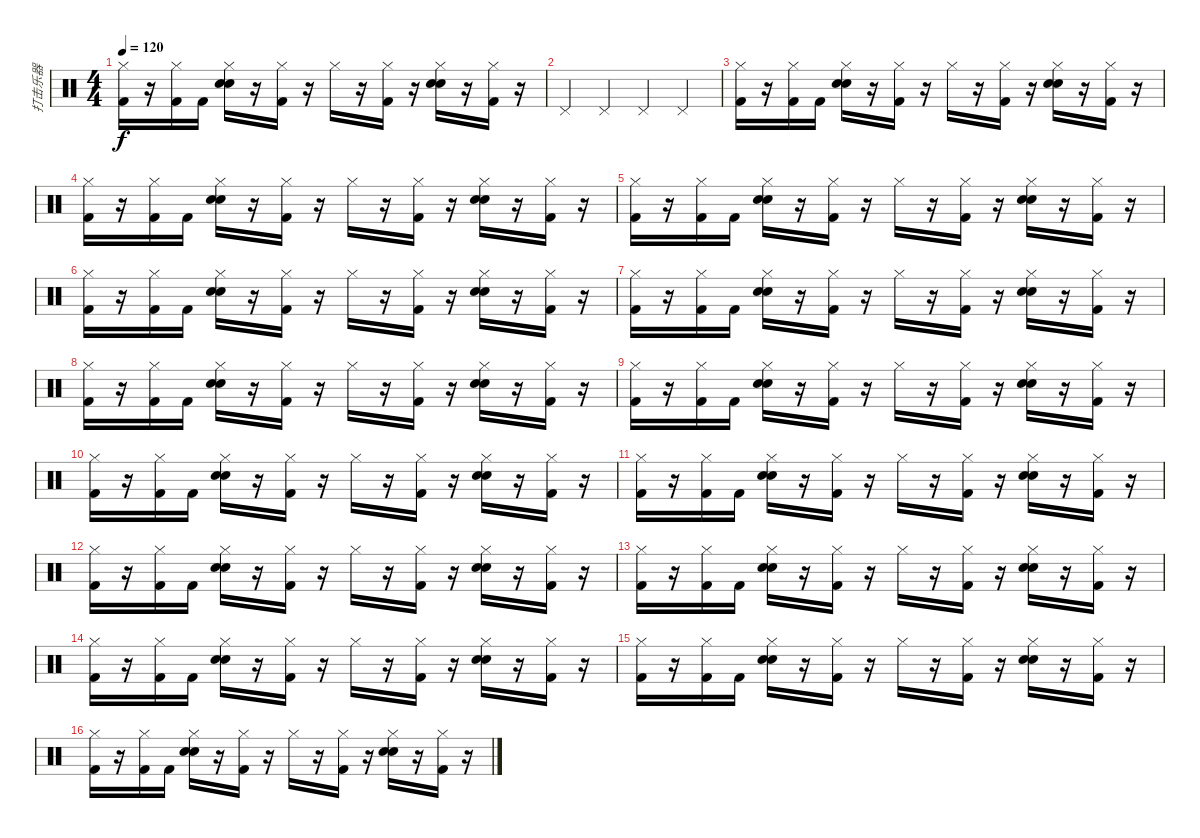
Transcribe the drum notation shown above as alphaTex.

\track ("打击乐器" "打击乐器") {instrument percussion}
\staff {score}
\articulation defaults
\ts (4 4)
\tempo 120
\clef neutral
\ks c
("Hi-Hat (closed)" "Kick (hit) 2").16{dy f} r.16 ("Hi-Hat (closed)" "Kick (hit) 2").16 "Kick (hit) 2".16 ("Hi-Hat (closed)" "Electric Snare (hit)" "Snare (hit) 2").16 r.16 ("Hi-Hat (closed)" "Kick (hit) 2").16 r.16 "Hi-Hat (closed)".16 r.16 ("Hi-Hat (closed)" "Kick (hit) 2").16 r.16 ("Hi-Hat (closed)" "Electric Snare (hit)" "Snare (hit) 2").16 r.16 ("Hi-Hat (closed)" "Kick (hit) 2").16 r.16 |
"Pedal Hi-Hat (hit)".4 "Pedal Hi-Hat (hit)".4 "Pedal Hi-Hat (hit)".4 "Pedal Hi-Hat (hit)".4 |
("Hi-Hat (closed)" "Kick (hit) 2").16 r.16 ("Hi-Hat (closed)" "Kick (hit) 2").16 "Kick (hit) 2".16 ("Hi-Hat (closed)" "Electric Snare (hit)" "Snare (hit) 2").16 r.16 ("Hi-Hat (closed)" "Kick (hit) 2").16 r.16 "Hi-Hat (closed)".16 r.16 ("Hi-Hat (closed)" "Kick (hit) 2").16 r.16 ("Hi-Hat (closed)" "Electric Snare (hit)" "Snare (hit) 2").16 r.16 ("Hi-Hat (closed)" "Kick (hit) 2").16 r.16 |
("Hi-Hat (closed)" "Kick (hit) 2").16 r.16 ("Hi-Hat (closed)" "Kick (hit) 2").16 "Kick (hit) 2".16 ("Hi-Hat (closed)" "Electric Snare (hit)" "Snare (hit) 2").16 r.16 ("Hi-Hat (closed)" "Kick (hit) 2").16 r.16 "Hi-Hat (closed)".16 r.16 ("Hi-Hat (closed)" "Kick (hit) 2").16 r.16 ("Hi-Hat (closed)" "Electric Snare (hit)" "Snare (hit) 2").16 r.16 ("Hi-Hat (closed)" "Kick (hit) 2").16 r.16 |
("Hi-Hat (closed)" "Kick (hit) 2").16 r.16 ("Hi-Hat (closed)" "Kick (hit) 2").16 "Kick (hit) 2".16 ("Hi-Hat (closed)" "Electric Snare (hit)" "Snare (hit) 2").16 r.16 ("Hi-Hat (closed)" "Kick (hit) 2").16 r.16 "Hi-Hat (closed)".16 r.16 ("Hi-Hat (closed)" "Kick (hit) 2").16 r.16 ("Hi-Hat (closed)" "Electric Snare (hit)" "Snare (hit) 2").16 r.16 ("Hi-Hat (closed)" "Kick (hit) 2").16 r.16 |
("Hi-Hat (closed)" "Kick (hit) 2").16 r.16 ("Hi-Hat (closed)" "Kick (hit) 2").16 "Kick (hit) 2".16 ("Hi-Hat (closed)" "Electric Snare (hit)" "Snare (hit) 2").16 r.16 ("Hi-Hat (closed)" "Kick (hit) 2").16 r.16 "Hi-Hat (closed)".16 r.16 ("Hi-Hat (closed)" "Kick (hit) 2").16 r.16 ("Hi-Hat (closed)" "Electric Snare (hit)" "Snare (hit) 2").16 r.16 ("Hi-Hat (closed)" "Kick (hit) 2").16 r.16 |
("Hi-Hat (closed)" "Kick (hit) 2").16 r.16 ("Hi-Hat (closed)" "Kick (hit) 2").16 "Kick (hit) 2".16 ("Hi-Hat (closed)" "Electric Snare (hit)" "Snare (hit) 2").16 r.16 ("Hi-Hat (closed)" "Kick (hit) 2").16 r.16 "Hi-Hat (closed)".16 r.16 ("Hi-Hat (closed)" "Kick (hit) 2").16 r.16 ("Hi-Hat (closed)" "Electric Snare (hit)" "Snare (hit) 2").16 r.16 ("Hi-Hat (closed)" "Kick (hit) 2").16 r.16 |
("Hi-Hat (closed)" "Kick (hit) 2").16 r.16 ("Hi-Hat (closed)" "Kick (hit) 2").16 "Kick (hit) 2".16 ("Hi-Hat (closed)" "Electric Snare (hit)" "Snare (hit) 2").16 r.16 ("Hi-Hat (closed)" "Kick (hit) 2").16 r.16 "Hi-Hat (closed)".16 r.16 ("Hi-Hat (closed)" "Kick (hit) 2").16 r.16 ("Hi-Hat (closed)" "Electric Snare (hit)" "Snare (hit) 2").16 r.16 ("Hi-Hat (closed)" "Kick (hit) 2").16 r.16 |
("Hi-Hat (closed)" "Kick (hit) 2").16 r.16 ("Hi-Hat (closed)" "Kick (hit) 2").16 "Kick (hit) 2".16 ("Hi-Hat (closed)" "Electric Snare (hit)" "Snare (hit) 2").16 r.16 ("Hi-Hat (closed)" "Kick (hit) 2").16 r.16 "Hi-Hat (closed)".16 r.16 ("Hi-Hat (closed)" "Kick (hit) 2").16 r.16 ("Hi-Hat (closed)" "Electric Snare (hit)" "Snare (hit) 2").16 r.16 ("Hi-Hat (closed)" "Kick (hit) 2").16 r.16 |
("Hi-Hat (closed)" "Kick (hit) 2").16 r.16 ("Hi-Hat (closed)" "Kick (hit) 2").16 "Kick (hit) 2".16 ("Hi-Hat (closed)" "Electric Snare (hit)" "Snare (hit) 2").16 r.16 ("Hi-Hat (closed)" "Kick (hit) 2").16 r.16 "Hi-Hat (closed)".16 r.16 ("Hi-Hat (closed)" "Kick (hit) 2").16 r.16 ("Hi-Hat (closed)" "Electric Snare (hit)" "Snare (hit) 2").16 r.16 ("Hi-Hat (closed)" "Kick (hit) 2").16 r.16 |
("Hi-Hat (closed)" "Kick (hit) 2").16 r.16 ("Hi-Hat (closed)" "Kick (hit) 2").16 "Kick (hit) 2".16 ("Hi-Hat (closed)" "Electric Snare (hit)" "Snare (hit) 2").16 r.16 ("Hi-Hat (closed)" "Kick (hit) 2").16 r.16 "Hi-Hat (closed)".16 r.16 ("Hi-Hat (closed)" "Kick (hit) 2").16 r.16 ("Hi-Hat (closed)" "Electric Snare (hit)" "Snare (hit) 2").16 r.16 ("Hi-Hat (closed)" "Kick (hit) 2").16 r.16 |
("Hi-Hat (closed)" "Kick (hit) 2").16 r.16 ("Hi-Hat (closed)" "Kick (hit) 2").16 "Kick (hit) 2".16 ("Hi-Hat (closed)" "Electric Snare (hit)" "Snare (hit) 2").16 r.16 ("Hi-Hat (closed)" "Kick (hit) 2").16 r.16 "Hi-Hat (closed)".16 r.16 ("Hi-Hat (closed)" "Kick (hit) 2").16 r.16 ("Hi-Hat (closed)" "Electric Snare (hit)" "Snare (hit) 2").16 r.16 ("Hi-Hat (closed)" "Kick (hit) 2").16 r.16 |
("Hi-Hat (closed)" "Kick (hit) 2").16 r.16 ("Hi-Hat (closed)" "Kick (hit) 2").16 "Kick (hit) 2".16 ("Hi-Hat (closed)" "Electric Snare (hit)" "Snare (hit) 2").16 r.16 ("Hi-Hat (closed)" "Kick (hit) 2").16 r.16 "Hi-Hat (closed)".16 r.16 ("Hi-Hat (closed)" "Kick (hit) 2").16 r.16 ("Hi-Hat (closed)" "Electric Snare (hit)" "Snare (hit) 2").16 r.16 ("Hi-Hat (closed)" "Kick (hit) 2").16 r.16 |
("Hi-Hat (closed)" "Kick (hit) 2").16 r.16 ("Hi-Hat (closed)" "Kick (hit) 2").16 "Kick (hit) 2".16 ("Hi-Hat (closed)" "Electric Snare (hit)" "Snare (hit) 2").16 r.16 ("Hi-Hat (closed)" "Kick (hit) 2").16 r.16 "Hi-Hat (closed)".16 r.16 ("Hi-Hat (closed)" "Kick (hit) 2").16 r.16 ("Hi-Hat (closed)" "Electric Snare (hit)" "Snare (hit) 2").16 r.16 ("Hi-Hat (closed)" "Kick (hit) 2").16 r.16 |
("Hi-Hat (closed)" "Kick (hit) 2").16 r.16 ("Hi-Hat (closed)" "Kick (hit) 2").16 "Kick (hit) 2".16 ("Hi-Hat (closed)" "Electric Snare (hit)" "Snare (hit) 2").16 r.16 ("Hi-Hat (closed)" "Kick (hit) 2").16 r.16 "Hi-Hat (closed)".16 r.16 ("Hi-Hat (closed)" "Kick (hit) 2").16 r.16 ("Hi-Hat (closed)" "Electric Snare (hit)" "Snare (hit) 2").16 r.16 ("Hi-Hat (closed)" "Kick (hit) 2").16 r.16 |
("Hi-Hat (closed)" "Kick (hit) 2").16 r.16 ("Hi-Hat (closed)" "Kick (hit) 2").16 "Kick (hit) 2".16 ("Hi-Hat (closed)" "Electric Snare (hit)" "Snare (hit) 2").16 r.16 ("Hi-Hat (closed)" "Kick (hit) 2").16 r.16 "Hi-Hat (closed)".16 r.16 ("Hi-Hat (closed)" "Kick (hit) 2").16 r.16 ("Hi-Hat (closed)" "Electric Snare (hit)" "Snare (hit) 2").16 r.16 ("Hi-Hat (closed)" "Kick (hit) 2").16 r.16
